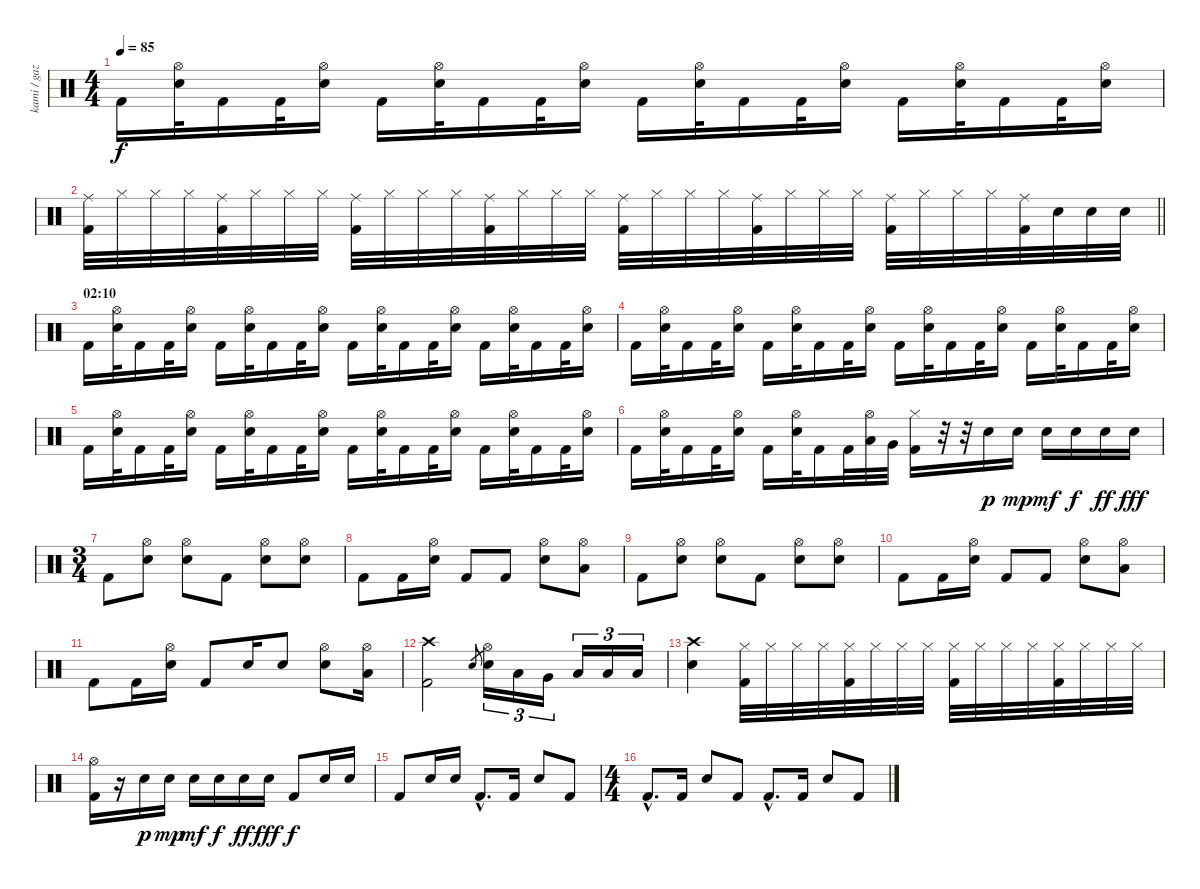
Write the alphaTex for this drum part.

\track ("kami / gaz (?)" "kami / gaz") {instrument percussion}
\staff {score}
\articulation defaults
\ts (4 4)
\tempo 85
\clef neutral
\ks c "Kick (hit) 2".16{dy f}
("Electric Snare (hit)" "Hi-Hat (open)").32 "Kick (hit) 2".16 "Kick (hit) 2".32 ("Electric Snare (hit)" "Hi-Hat (open)").16 "Kick (hit) 2".16 ("Electric Snare (hit)" "Hi-Hat (open)").32 "Kick (hit) 2".16 "Kick (hit) 2".32 ("Electric Snare (hit)" "Hi-Hat (open)").16 "Kick (hit) 2".16 ("Electric Snare (hit)" "Hi-Hat (open)").32 "Kick (hit) 2".16 "Kick (hit) 2".32 ("Electric Snare (hit)" "Hi-Hat (open)").16 "Kick (hit) 2".16 ("Electric Snare (hit)" "Hi-Hat (open)").32 "Kick (hit) 2".16 "Kick (hit) 2".32 ("Electric Snare (hit)" "Hi-Hat (open)").16 |
\barLineRight lightlight
("Kick (hit) 2" "Ride (middle)").32 "Hi-Hat (closed)".32 "Hi-Hat (closed)".32 "Hi-Hat (closed)".32 ("Kick (hit) 2" "Ride (middle)").32 "Hi-Hat (closed)".32 "Hi-Hat (closed)".32 "Hi-Hat (closed)".32 ("Kick (hit) 2" "Ride (middle)").32 "Hi-Hat (closed)".32 "Hi-Hat (closed)".32 "Hi-Hat (closed)".32 ("Kick (hit) 2" "Ride (middle)").32 "Hi-Hat (closed)".32 "Hi-Hat (closed)".32 "Hi-Hat (closed)".32 ("Kick (hit) 2" "Ride (middle)").32 "Hi-Hat (closed)".32 "Hi-Hat (closed)".32 "Hi-Hat (closed)".32 ("Kick (hit) 2" "Ride (middle)").32 "Hi-Hat (closed)".32 "Hi-Hat (closed)".32 "Hi-Hat (closed)".32 ("Kick (hit) 2" "Ride (middle)").32 "Hi-Hat (closed)".32 "Hi-Hat (closed)".32 "Hi-Hat (closed)".32 ("Kick (hit) 2" "Ride (middle)").32 "Electric Snare (hit)".32 "Electric Snare (hit)".32 "Electric Snare (hit)".32 |
\section ("" "02:10")
"Kick (hit) 2".16 ("Electric Snare (hit)" "Hi-Hat (open)").32 "Kick (hit) 2".16 "Kick (hit) 2".32 ("Electric Snare (hit)" "Hi-Hat (open)").16 "Kick (hit) 2".16 ("Electric Snare (hit)" "Hi-Hat (open)").32 "Kick (hit) 2".16 "Kick (hit) 2".32 ("Electric Snare (hit)" "Hi-Hat (open)").16 "Kick (hit) 2".16 ("Electric Snare (hit)" "Hi-Hat (open)").32 "Kick (hit) 2".16 "Kick (hit) 2".32 ("Electric Snare (hit)" "Hi-Hat (open)").16 "Kick (hit) 2".16 ("Electric Snare (hit)" "Hi-Hat (open)").32 "Kick (hit) 2".16 "Kick (hit) 2".32 ("Electric Snare (hit)" "Hi-Hat (open)").16 |
"Kick (hit) 2".16 ("Electric Snare (hit)" "Hi-Hat (open)").32 "Kick (hit) 2".16 "Kick (hit) 2".32 ("Electric Snare (hit)" "Hi-Hat (open)").16 "Kick (hit) 2".16 ("Electric Snare (hit)" "Hi-Hat (open)").32 "Kick (hit) 2".16 "Kick (hit) 2".32 ("Electric Snare (hit)" "Hi-Hat (open)").16 "Kick (hit) 2".16 ("Electric Snare (hit)" "Hi-Hat (open)").32 "Kick (hit) 2".16 "Kick (hit) 2".32 ("Electric Snare (hit)" "Hi-Hat (open)").16 "Kick (hit) 2".16 ("Electric Snare (hit)" "Hi-Hat (open)").32 "Kick (hit) 2".16 "Kick (hit) 2".32 ("Electric Snare (hit)" "Hi-Hat (open)").16 |
"Kick (hit) 2".16 ("Electric Snare (hit)" "Hi-Hat (open)").32 "Kick (hit) 2".16 "Kick (hit) 2".32 ("Electric Snare (hit)" "Hi-Hat (open)").16 "Kick (hit) 2".16 ("Electric Snare (hit)" "Hi-Hat (open)").32 "Kick (hit) 2".16 "Kick (hit) 2".32 ("Electric Snare (hit)" "Hi-Hat (open)").16 "Kick (hit) 2".16 ("Electric Snare (hit)" "Hi-Hat (open)").32 "Kick (hit) 2".16 "Kick (hit) 2".32 ("Electric Snare (hit)" "Hi-Hat (open)").16 "Kick (hit) 2".16 ("Electric Snare (hit)" "Hi-Hat (open)").32 "Kick (hit) 2".16 "Kick (hit) 2".32 ("Electric Snare (hit)" "Hi-Hat (open)").16 |
"Kick (hit) 2".16 ("Electric Snare (hit)" "Hi-Hat (open)").32 "Kick (hit) 2".16 "Kick (hit) 2".32 ("Electric Snare (hit)" "Hi-Hat (open)").16 "Kick (hit) 2".16 ("Electric Snare (hit)" "Hi-Hat (open)").32 "Kick (hit) 2".16 "Kick (hit) 2".32 ("Low Tom (hit)" "Hi-Hat (open)").32 "Very Low Tom (hit)".32 ("Kick (hit) 2" "Hi-Hat (closed)").16 r.32 r.32 "Electric Snare (hit)".16{dy p} "Electric Snare (hit)".16{dy mp} "Electric Snare (hit)".16{dy mf} "Electric Snare (hit)".16{dy f} "Electric Snare (hit)".16{dy ff} "Electric Snare (hit)".16{dy fff} |
\ts (3 4)
"Kick (hit) 2".8 ("Electric Snare (hit)" "Hi-Hat (open)").8 ("Electric Snare (hit)" "Hi-Hat (open)").8 "Kick (hit) 2".8 ("Electric Snare (hit)" "Hi-Hat (open)").8 ("Electric Snare (hit)" "Hi-Hat (open)").8 |
"Kick (hit) 2".8 "Kick (hit) 2".16 ("Electric Snare (hit)" "Hi-Hat (open)").16 "Kick (hit) 2".8 "Kick (hit) 2".8 ("Electric Snare (hit)" "Hi-Hat (open)").8 ("Low Tom (hit)" "Hi-Hat (open)").8 |
"Kick (hit) 2".8 ("Electric Snare (hit)" "Hi-Hat (open)").8 ("Electric Snare (hit)" "Hi-Hat (open)").8 "Kick (hit) 2".8 ("Electric Snare (hit)" "Hi-Hat (open)").8 ("Electric Snare (hit)" "Hi-Hat (open)").8 |
"Kick (hit) 2".8 "Kick (hit) 2".16 ("Electric Snare (hit)" "Hi-Hat (open)").16 "Kick (hit) 2".8 "Kick (hit) 2".8 ("Electric Snare (hit)" "Hi-Hat (open)").8 ("Low Tom (hit)" "Hi-Hat (open)").8 |
"Kick (hit) 2".8 "Kick (hit) 2".16 ("Electric Snare (hit)" "Hi-Hat (open)").16 "Kick (hit) 2".8 "Electric Snare (hit)".16 "Electric Snare (hit)".8 ("Electric Snare (hit)" "Hi-Hat (open)").8 ("Low Tom (hit)" "Hi-Hat (open)").16 |
("Kick (hit) 2" "Crash high (hit)").2 "Electric Snare (hit)".8{gr} ("Electric Snare (hit)" "Hi-Hat (open)").16{tu (3 2)} "Low Tom (hit)".16{tu (3 2)} "Very Low Tom (hit)".16{tu (3 2)} "Low Floor Tom (hit)".16{tu (3 2)} "Low Tom (hit)".16{tu (3 2)} "Low Floor Tom (hit)".16{tu (3 2)} |
("Electric Snare (hit)" "Crash high (hit)").4 ("Kick (hit) 2" "Hi-Hat (closed)").32 "Hi-Hat (closed)".32 "Hi-Hat (closed)".32 "Hi-Hat (closed)".32 ("Kick (hit) 2" "Hi-Hat (closed)").32 "Hi-Hat (closed)".32 "Hi-Hat (closed)".32 "Hi-Hat (closed)".32 ("Kick (hit) 2" "Hi-Hat (closed)").32 "Hi-Hat (closed)".32 "Hi-Hat (closed)".32 "Hi-Hat (closed)".32 ("Kick (hit) 2" "Hi-Hat (closed)").32 "Hi-Hat (closed)".32 "Hi-Hat (closed)".32 "Hi-Hat (closed)".32 |
("Kick (hit) 2" "Hi-Hat (open)").16 r.16 "Electric Snare (hit)".16{dy p} "Electric Snare (hit)".16{dy mp} "Electric Snare (hit)".16{dy mf} "Electric Snare (hit)".16{dy f} "Electric Snare (hit)".16{dy ff} "Electric Snare (hit)".16{dy fff} "Kick (hit) 2".8{dy f} "Electric Snare (hit)".16 "Electric Snare (hit)".16 |
"Kick (hit) 2".8 "Electric Snare (hit)".16 "Electric Snare (hit)".16 "Kick (hit) 2"{hac}.8{d} "Kick (hit) 2".16 "Electric Snare (hit)".8 "Kick (hit) 2".8 |
\ts (4 4)
"Kick (hit) 2"{hac}.8{d} "Kick (hit) 2".16 "Electric Snare (hit)".8 "Kick (hit) 2".8 "Kick (hit) 2"{hac}.8{d} "Kick (hit) 2".16 "Electric Snare (hit)".8 "Kick (hit) 2".8
